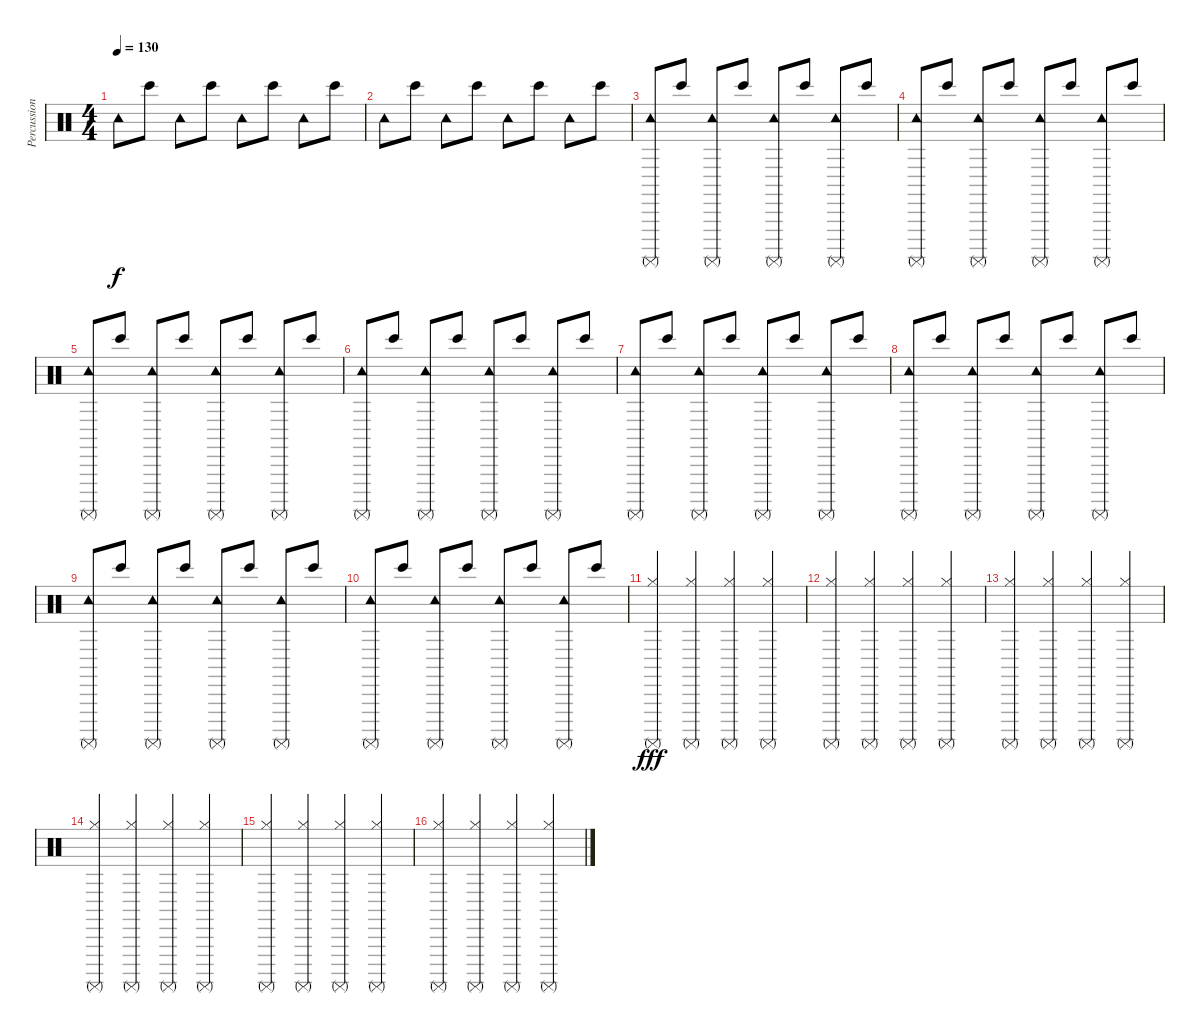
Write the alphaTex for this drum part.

\track ("Percussions" "Percussion") {instrument percussion}
\staff {score}
\articulation defaults
\ts (4 4)
\tempo 130
\clef neutral
\ks c "Tambourine (hit)".8{dy f} "Bongo High (hit)".8 "Tambourine (hit)".8 "Bongo High (hit)".8 "Tambourine (hit)".8 "Bongo High (hit)".8 "Tambourine (hit)".8 "Bongo High (hit)".8
|
"Tambourine (hit)".8 "Bongo High (hit)".8 "Tambourine (hit)".8 "Bongo High (hit)".8 "Tambourine (hit)".8 "Bongo High (hit)".8 "Tambourine (hit)".8 "Bongo High (hit)".8 |
("Surdo (mute)" "Tambourine (hit)").8 "Bongo High (hit)".8 ("Surdo (mute)" "Tambourine (hit)").8 "Bongo High (hit)".8 ("Surdo (mute)" "Tambourine (hit)").8 "Bongo High (hit)".8 ("Surdo (mute)" "Tambourine (hit)").8 "Bongo High (hit)".8 |
("Surdo (mute)" "Tambourine (hit)").8 "Bongo High (hit)".8 ("Surdo (mute)" "Tambourine (hit)").8 "Bongo High (hit)".8 ("Surdo (mute)" "Tambourine (hit)").8 "Bongo High (hit)".8 ("Surdo (mute)" "Tambourine (hit)").8 "Bongo High (hit)".8 |
("Surdo (mute)" "Tambourine (hit)").8 "Bongo High (hit)".8 ("Surdo (mute)" "Tambourine (hit)").8 "Bongo High (hit)".8 ("Surdo (mute)" "Tambourine (hit)").8 "Bongo High (hit)".8 ("Surdo (mute)" "Tambourine (hit)").8 "Bongo High (hit)".8 |
("Surdo (mute)" "Tambourine (hit)").8 "Bongo High (hit)".8 ("Surdo (mute)" "Tambourine (hit)").8 "Bongo High (hit)".8 ("Surdo (mute)" "Tambourine (hit)").8 "Bongo High (hit)".8 ("Surdo (mute)" "Tambourine (hit)").8 "Bongo High (hit)".8 |
("Surdo (mute)" "Tambourine (hit)").8 "Bongo High (hit)".8 ("Surdo (mute)" "Tambourine (hit)").8 "Bongo High (hit)".8 ("Surdo (mute)" "Tambourine (hit)").8 "Bongo High (hit)".8 ("Surdo (mute)" "Tambourine (hit)").8 "Bongo High (hit)".8 |
("Surdo (mute)" "Tambourine (hit)").8 "Bongo High (hit)".8 ("Surdo (mute)" "Tambourine (hit)").8 "Bongo High (hit)".8 ("Surdo (mute)" "Tambourine (hit)").8 "Bongo High (hit)".8 ("Surdo (mute)" "Tambourine (hit)").8 "Bongo High (hit)".8 |
("Surdo (mute)" "Tambourine (hit)").8 "Bongo High (hit)".8 ("Surdo (mute)" "Tambourine (hit)").8 "Bongo High (hit)".8 ("Surdo (mute)" "Tambourine (hit)").8 "Bongo High (hit)".8 ("Surdo (mute)" "Tambourine (hit)").8 "Bongo High (hit)".8 |
("Surdo (mute)" "Tambourine (hit)").8 "Bongo High (hit)".8 ("Surdo (mute)" "Tambourine (hit)").8 "Bongo High (hit)".8 ("Surdo (mute)" "Tambourine (hit)").8 "Bongo High (hit)".8 ("Surdo (mute)" "Tambourine (hit)").8 "Bongo High (hit)".8 |
("Surdo (mute)" "Hi-Hat (closed)").4{dy fff} ("Surdo (mute)" "Hi-Hat (closed)").4 ("Surdo (mute)" "Hi-Hat (closed)").4 ("Surdo (mute)" "Hi-Hat (closed)").4 |
("Surdo (mute)" "Hi-Hat (closed)").4 ("Surdo (mute)" "Hi-Hat (closed)").4 ("Surdo (mute)" "Hi-Hat (closed)").4 ("Surdo (mute)" "Hi-Hat (closed)").4 |
("Surdo (mute)" "Hi-Hat (closed)").4 ("Surdo (mute)" "Hi-Hat (closed)").4 ("Surdo (mute)" "Hi-Hat (closed)").4 ("Surdo (mute)" "Hi-Hat (closed)").4 |
("Surdo (mute)" "Hi-Hat (closed)").4 ("Surdo (mute)" "Hi-Hat (closed)").4 ("Surdo (mute)" "Hi-Hat (closed)").4 ("Surdo (mute)" "Hi-Hat (closed)").4 |
("Surdo (mute)" "Hi-Hat (closed)").4 ("Surdo (mute)" "Hi-Hat (closed)").4 ("Surdo (mute)" "Hi-Hat (closed)").4 ("Surdo (mute)" "Hi-Hat (closed)").4 |
("Surdo (mute)" "Hi-Hat (closed)").4 ("Surdo (mute)" "Hi-Hat (closed)").4 ("Surdo (mute)" "Hi-Hat (closed)").4 ("Surdo (mute)" "Hi-Hat (closed)").4
